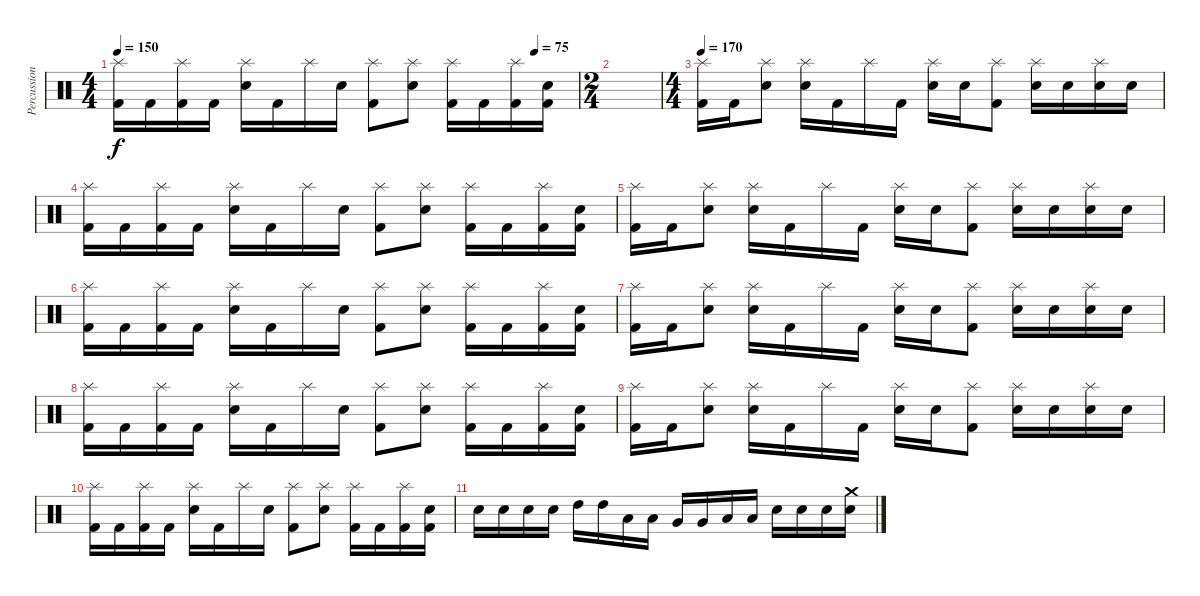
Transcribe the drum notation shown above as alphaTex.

\track ("Percussion" "Percussion") {instrument percussion}
\staff {score}
\articulation defaults
\ts (4 4)
\tempo 150
\tempo (75 0.90625)
\clef neutral
\ks c
("Splash (hit)" "Kick (hit) 2").16{dy f} "Kick (hit) 2".16 ("Splash (hit)" "Kick (hit) 2").16 "Kick (hit) 2".16 ("Splash (hit)" "Snare (hit) 2").16 "Kick (hit) 2".16 "Splash (hit)".16 "Snare (hit) 2".16 ("Splash (hit)" "Kick (hit) 2").8 ("Splash (hit)" "Snare (hit) 2").8 ("Splash (hit)" "Kick (hit) 2").16 "Kick (hit) 2".16 ("Splash (hit)" "Kick (hit) 2").16 ("Snare (hit) 2" "Kick (hit) 2").16 |
\ts (2 4)
|
\ts (4 4)
\tempo 170
("Splash (hit)" "Kick (hit) 2").16 "Kick (hit) 2".16 ("Splash (hit)" "Snare (hit) 2").8 ("Splash (hit)" "Snare (hit) 2").16 "Kick (hit) 2".16 "Splash (hit)".16 "Kick (hit) 2".16 ("Splash (hit)" "Snare (hit) 2").16 "Snare (hit) 2".16 ("Splash (hit)" "Kick (hit) 2").8 ("Splash (hit)" "Snare (hit) 2").16 "Snare (hit) 2".16 ("Splash (hit)" "Snare (hit) 2").16 "Snare (hit) 2".16 |
("Splash (hit)" "Kick (hit) 2").16 "Kick (hit) 2".16 ("Splash (hit)" "Kick (hit) 2").16 "Kick (hit) 2".16 ("Splash (hit)" "Snare (hit) 2").16 "Kick (hit) 2".16 "Splash (hit)".16 "Snare (hit) 2".16 ("Splash (hit)" "Kick (hit) 2").8 ("Splash (hit)" "Snare (hit) 2").8 ("Splash (hit)" "Kick (hit) 2").16 "Kick (hit) 2".16 ("Splash (hit)" "Kick (hit) 2").16 ("Snare (hit) 2" "Kick (hit) 2").16 |
("Splash (hit)" "Kick (hit) 2").16 "Kick (hit) 2".16 ("Splash (hit)" "Snare (hit) 2").8 ("Splash (hit)" "Snare (hit) 2").16 "Kick (hit) 2".16 "Splash (hit)".16 "Kick (hit) 2".16 ("Splash (hit)" "Snare (hit) 2").16 "Snare (hit) 2".16 ("Splash (hit)" "Kick (hit) 2").8 ("Splash (hit)" "Snare (hit) 2").16 "Snare (hit) 2".16 ("Splash (hit)" "Snare (hit) 2").16 "Snare (hit) 2".16 |
("Splash (hit)" "Kick (hit) 2").16 "Kick (hit) 2".16 ("Splash (hit)" "Kick (hit) 2").16 "Kick (hit) 2".16 ("Splash (hit)" "Snare (hit) 2").16 "Kick (hit) 2".16 "Splash (hit)".16 "Snare (hit) 2".16 ("Splash (hit)" "Kick (hit) 2").8 ("Splash (hit)" "Snare (hit) 2").8 ("Splash (hit)" "Kick (hit) 2").16 "Kick (hit) 2".16 ("Splash (hit)" "Kick (hit) 2").16 ("Snare (hit) 2" "Kick (hit) 2").16 |
("Splash (hit)" "Kick (hit) 2").16 "Kick (hit) 2".16 ("Splash (hit)" "Snare (hit) 2").8 ("Splash (hit)" "Snare (hit) 2").16 "Kick (hit) 2".16 "Splash (hit)".16 "Kick (hit) 2".16 ("Splash (hit)" "Snare (hit) 2").16 "Snare (hit) 2".16 ("Splash (hit)" "Kick (hit) 2").8 ("Splash (hit)" "Snare (hit) 2").16 "Snare (hit) 2".16 ("Splash (hit)" "Snare (hit) 2").16 "Snare (hit) 2".16 |
("Splash (hit)" "Kick (hit) 2").16 "Kick (hit) 2".16 ("Splash (hit)" "Kick (hit) 2").16 "Kick (hit) 2".16 ("Splash (hit)" "Snare (hit) 2").16 "Kick (hit) 2".16 "Splash (hit)".16 "Snare (hit) 2".16 ("Splash (hit)" "Kick (hit) 2").8 ("Splash (hit)" "Snare (hit) 2").8 ("Splash (hit)" "Kick (hit) 2").16 "Kick (hit) 2".16 ("Splash (hit)" "Kick (hit) 2").16 ("Snare (hit) 2" "Kick (hit) 2").16 |
("Splash (hit)" "Kick (hit) 2").16 "Kick (hit) 2".16 ("Splash (hit)" "Snare (hit) 2").8 ("Splash (hit)" "Snare (hit) 2").16 "Kick (hit) 2".16 "Splash (hit)".16 "Kick (hit) 2".16 ("Splash (hit)" "Snare (hit) 2").16 "Snare (hit) 2".16 ("Splash (hit)" "Kick (hit) 2").8 ("Splash (hit)" "Snare (hit) 2").16 "Snare (hit) 2".16 ("Splash (hit)" "Snare (hit) 2").16 "Snare (hit) 2".16 |
("Splash (hit)" "Kick (hit) 2").16 "Kick (hit) 2".16 ("Splash (hit)" "Kick (hit) 2").16 "Kick (hit) 2".16 ("Splash (hit)" "Snare (hit) 2").16 "Kick (hit) 2".16 "Splash (hit)".16 "Snare (hit) 2".16 ("Splash (hit)" "Kick (hit) 2").8 ("Splash (hit)" "Snare (hit) 2").8 ("Splash (hit)" "Kick (hit) 2").16 "Kick (hit) 2".16 ("Splash (hit)" "Kick (hit) 2").16 ("Snare (hit) 2" "Kick (hit) 2").16 |
"Snare (hit) 2".16 "Snare (hit) 2".16 "Snare (hit) 2".16 "Snare (hit) 2".16 "High Tom (hit)".16 "High Tom (hit)".16 "Low Tom (hit)".16 "Low Tom (hit)".16 "Very Low Tom (hit)".16 "Very Low Tom (hit)".16 "Low Floor Tom (hit)".16 "Low Floor Tom (hit)".16 "Snare (hit) 2".16 "Snare (hit) 2".16 "Snare (hit) 2".16 ("Crash medium (hit)" "Snare (hit) 2").16
